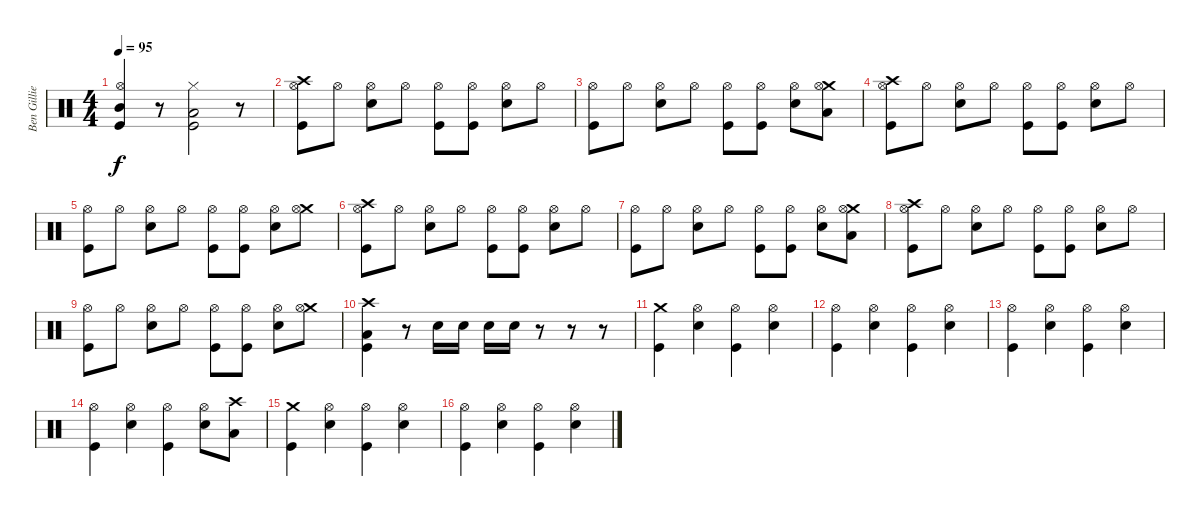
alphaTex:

\track ("Ben Gillies (drums)" "Ben Gillie") {instrument percussion}
\staff {score}
\articulation defaults
\ts (4 4)
\tempo 95
\clef neutral
\ks c
("Mid Tom (hit)" "Hi-Hat (open)" "Kick (hit)").4{dy f} r.8 ("Low Tom (hit)" "Hi-Hat (closed)" "Kick (hit)").2 r.8 |
("Crash high (hit)" "Kick (hit)" "Hi-Hat (open)").8 "Hi-Hat (open)".8 ("Snare (hit) 2" "Hi-Hat (open)").8 "Hi-Hat (open)".8 ("Kick (hit)" "Hi-Hat (open)").8 ("Kick (hit)" "Hi-Hat (open)").8 ("Snare (hit) 2" "Hi-Hat (open)").8 "Hi-Hat (open)".8 |
("Kick (hit)" "Hi-Hat (open)").8 "Hi-Hat (open)".8 ("Snare (hit) 2" "Hi-Hat (open)").8 "Hi-Hat (open)".8 ("Kick (hit)" "Hi-Hat (open)").8 ("Kick (hit)" "Hi-Hat (open)").8 ("Snare (hit) 2" "Hi-Hat (open)").8 ("Crash medium (hit)" "Low Tom (hit)" "Hi-Hat (open)").8 |
("Crash high (hit)" "Kick (hit)" "Hi-Hat (open)").8 "Hi-Hat (open)".8 ("Snare (hit) 2" "Hi-Hat (open)").8 "Hi-Hat (open)".8 ("Kick (hit)" "Hi-Hat (open)").8 ("Kick (hit)" "Hi-Hat (open)").8 ("Snare (hit) 2" "Hi-Hat (open)").8 "Hi-Hat (open)".8 |
("Kick (hit)" "Hi-Hat (open)").8 "Hi-Hat (open)".8 ("Snare (hit) 2" "Hi-Hat (open)").8 "Hi-Hat (open)".8 ("Kick (hit)" "Hi-Hat (open)").8 ("Kick (hit)" "Hi-Hat (open)").8 ("Snare (hit) 2" "Hi-Hat (open)").8 ("Crash medium (hit)" "Hi-Hat (open)").8 |
("Crash high (hit)" "Kick (hit)" "Hi-Hat (open)").8 "Hi-Hat (open)".8 ("Snare (hit) 2" "Hi-Hat (open)").8 "Hi-Hat (open)".8 ("Kick (hit)" "Hi-Hat (open)").8 ("Kick (hit)" "Hi-Hat (open)").8 ("Snare (hit) 2" "Hi-Hat (open)").8 "Hi-Hat (open)".8 |
("Kick (hit)" "Hi-Hat (open)").8 "Hi-Hat (open)".8 ("Snare (hit) 2" "Hi-Hat (open)").8 "Hi-Hat (open)".8 ("Kick (hit)" "Hi-Hat (open)").8 ("Kick (hit)" "Hi-Hat (open)").8 ("Snare (hit) 2" "Hi-Hat (open)").8 ("Crash medium (hit)" "Low Tom (hit)" "Hi-Hat (open)").8 |
("Crash high (hit)" "Kick (hit)" "Hi-Hat (open)").8 "Hi-Hat (open)".8 ("Snare (hit) 2" "Hi-Hat (open)").8 "Hi-Hat (open)".8 ("Kick (hit)" "Hi-Hat (open)").8 ("Kick (hit)" "Hi-Hat (open)").8 ("Snare (hit) 2" "Hi-Hat (open)").8 "Hi-Hat (open)".8 |
("Kick (hit)" "Hi-Hat (open)").8 "Hi-Hat (open)".8 ("Snare (hit) 2" "Hi-Hat (open)").8 "Hi-Hat (open)".8 ("Kick (hit)" "Hi-Hat (open)").8 ("Kick (hit)" "Hi-Hat (open)").8 ("Snare (hit) 2" "Hi-Hat (open)").8 ("Crash medium (hit)" "Hi-Hat (open)").8 |
("Crash high (hit)" "Low Tom (hit)" "Kick (hit)").4 r.8 "Snare (hit) 2".16 "Snare (hit) 2".16 "Snare (hit) 2".16 "Snare (hit) 2".16 r.8 r.8 r.8 |
("Crash medium (hit)" "Kick (hit)").4 ("Snare (hit) 2" "Hi-Hat (open)").4 ("Kick (hit)" "Hi-Hat (open)").4 ("Snare (hit) 2" "Hi-Hat (open)").4 |
("Kick (hit)" "Hi-Hat (open)").4 ("Snare (hit) 2" "Hi-Hat (open)").4 ("Kick (hit)" "Hi-Hat (open)").4 ("Snare (hit) 2" "Hi-Hat (open)").4 |
("Kick (hit)" "Hi-Hat (open)").4 ("Snare (hit) 2" "Hi-Hat (open)").4 ("Kick (hit)" "Hi-Hat (open)").4 ("Snare (hit) 2" "Hi-Hat (open)").4 |
("Kick (hit)" "Hi-Hat (open)").4 ("Snare (hit) 2" "Hi-Hat (open)").4 ("Kick (hit)" "Hi-Hat (open)").4 ("Snare (hit) 2" "Hi-Hat (open)").8 ("Crash high (hit)" "Low Tom (hit)").8 |
("Crash medium (hit)" "Kick (hit)").4 ("Snare (hit) 2" "Hi-Hat (open)").4 ("Kick (hit)" "Hi-Hat (open)").4 ("Snare (hit) 2" "Hi-Hat (open)").4 |
("Kick (hit)" "Hi-Hat (open)").4 ("Snare (hit) 2" "Hi-Hat (open)").4 ("Kick (hit)" "Hi-Hat (open)").4 ("Snare (hit) 2" "Hi-Hat (open)").4
